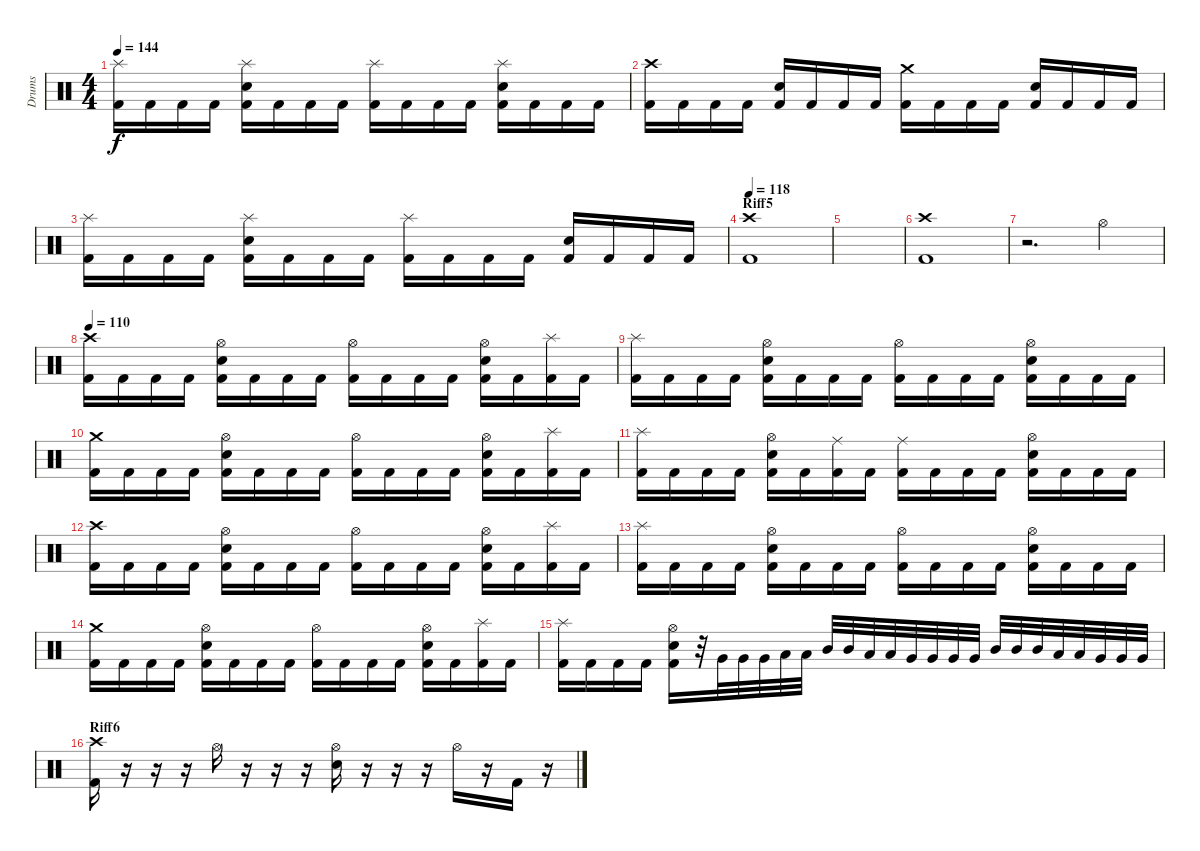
\track ("Drums" "Drums") {instrument percussion}
\staff {score}
\articulation defaults
\ts (4 4)
\tempo 144
\clef neutral
\ks c
("Splash (hit)" "Kick (hit) 2").16{dy f} "Kick (hit) 2".16 "Kick (hit) 2".16 "Kick (hit) 2".16 ("Splash (hit)" "Snare (hit) 2" "Kick (hit) 2").16 "Kick (hit) 2".16 "Kick (hit) 2".16 "Kick (hit) 2".16 ("Splash (hit)" "Kick (hit) 2").16 "Kick (hit) 2".16 "Kick (hit) 2".16 "Kick (hit) 2".16 ("Splash (hit)" "Snare (hit) 2" "Kick (hit) 2").16 "Kick (hit) 2".16 "Kick (hit) 2".16 "Kick (hit) 2".16 |
("Crash high (hit)" "Kick (hit) 2").16 "Kick (hit) 2".16 "Kick (hit) 2".16 "Kick (hit) 2".16 ("Snare (hit) 2" "Kick (hit) 2").16 "Kick (hit) 2".16 "Kick (hit) 2".16 "Kick (hit) 2".16 ("Crash medium (hit)" "Kick (hit) 2").16 "Kick (hit) 2".16 "Kick (hit) 2".16 "Kick (hit) 2".16 ("Snare (hit) 2" "Kick (hit) 2").16 "Kick (hit) 2".16 "Kick (hit) 2".16 "Kick (hit) 2".16 |
("Splash (hit)" "Kick (hit) 2").16 "Kick (hit) 2".16 "Kick (hit) 2".16 "Kick (hit) 2".16 ("Splash (hit)" "Snare (hit) 2" "Kick (hit) 2").16 "Kick (hit) 2".16 "Kick (hit) 2".16 "Kick (hit) 2".16 ("Splash (hit)" "Kick (hit) 2").16 "Kick (hit) 2".16 "Kick (hit) 2".16 "Kick (hit) 2".16 ("Snare (hit) 2" "Kick (hit) 2").16 "Kick (hit) 2".16 "Kick (hit) 2".16 "Kick (hit) 2".16 |
\section ("" "Riff5")
\tempo 118
("Crash high (hit)" "Kick (hit) 2").1 |
|
("Crash high (hit)" "Kick (hit) 2").1 |
r.2{d} "Hi-Hat (open)".4 |
\tempo 110
("Crash high (hit)" "Kick (hit) 2").16 "Kick (hit) 2".16 "Kick (hit) 2".16 "Kick (hit) 2".16 ("Hi-Hat (open)" "Snare (hit) 2" "Kick (hit) 2").16 "Kick (hit) 2".16 "Kick (hit) 2".16 "Kick (hit) 2".16 ("Hi-Hat (open)" "Kick (hit) 2").16 "Kick (hit) 2".16 "Kick (hit) 2".16 "Kick (hit) 2".16 ("Hi-Hat (open)" "Snare (hit) 2" "Kick (hit) 2").16 "Kick (hit) 2".16 ("Splash (hit)" "Kick (hit) 2").16 "Kick (hit) 2".16 |
("Splash (hit)" "Kick (hit) 2").16 "Kick (hit) 2".16 "Kick (hit) 2".16 "Kick (hit) 2".16 ("Hi-Hat (open)" "Snare (hit) 2" "Kick (hit) 2").16 "Kick (hit) 2".16 "Kick (hit) 2".16 "Kick (hit) 2".16 ("Hi-Hat (open)" "Kick (hit) 2").16 "Kick (hit) 2".16 "Kick (hit) 2".16 "Kick (hit) 2".16 ("Hi-Hat (open)" "Snare (hit) 2" "Kick (hit) 2").16 "Kick (hit) 2".16 "Kick (hit) 2".16 "Kick (hit) 2".16 |
("Crash medium (hit)" "Kick (hit) 2").16 "Kick (hit) 2".16 "Kick (hit) 2".16 "Kick (hit) 2".16 ("Hi-Hat (open)" "Snare (hit) 2" "Kick (hit) 2").16 "Kick (hit) 2".16 "Kick (hit) 2".16 "Kick (hit) 2".16 ("Hi-Hat (open)" "Kick (hit) 2").16 "Kick (hit) 2".16 "Kick (hit) 2".16 "Kick (hit) 2".16 ("Hi-Hat (open)" "Snare (hit) 2" "Kick (hit) 2").16 "Kick (hit) 2".16 ("Splash (hit)" "Kick (hit) 2").16 "Kick (hit) 2".16 |
("Splash (hit)" "Kick (hit) 2").16 "Kick (hit) 2".16 "Kick (hit) 2".16 "Kick (hit) 2".16 ("Hi-Hat (open)" "Snare (hit) 2" "Kick (hit) 2").16 "Kick (hit) 2".16 ("Ride (middle)" "Kick (hit) 2").16 "Kick (hit) 2".16 ("Ride (middle)" "Kick (hit) 2").16 "Kick (hit) 2".16 "Kick (hit) 2".16 "Kick (hit) 2".16 ("Hi-Hat (open)" "Snare (hit) 2" "Kick (hit) 2").16 "Kick (hit) 2".16 "Kick (hit) 2".16 "Kick (hit) 2".16 |
("Crash high (hit)" "Kick (hit) 2").16 "Kick (hit) 2".16 "Kick (hit) 2".16 "Kick (hit) 2".16 ("Hi-Hat (open)" "Snare (hit) 2" "Kick (hit) 2").16 "Kick (hit) 2".16 "Kick (hit) 2".16 "Kick (hit) 2".16 ("Hi-Hat (open)" "Kick (hit) 2").16 "Kick (hit) 2".16 "Kick (hit) 2".16 "Kick (hit) 2".16 ("Hi-Hat (open)" "Snare (hit) 2" "Kick (hit) 2").16 "Kick (hit) 2".16 ("Splash (hit)" "Kick (hit) 2").16 "Kick (hit) 2".16 |
("Splash (hit)" "Kick (hit) 2").16 "Kick (hit) 2".16 "Kick (hit) 2".16 "Kick (hit) 2".16 ("Hi-Hat (open)" "Snare (hit) 2" "Kick (hit) 2").16 "Kick (hit) 2".16 "Kick (hit) 2".16 "Kick (hit) 2".16 ("Hi-Hat (open)" "Kick (hit) 2").16 "Kick (hit) 2".16 "Kick (hit) 2".16 "Kick (hit) 2".16 ("Hi-Hat (open)" "Snare (hit) 2" "Kick (hit) 2").16 "Kick (hit) 2".16 "Kick (hit) 2".16 "Kick (hit) 2".16 |
("Crash medium (hit)" "Kick (hit) 2").16 "Kick (hit) 2".16 "Kick (hit) 2".16 "Kick (hit) 2".16 ("Hi-Hat (open)" "Snare (hit) 2" "Kick (hit) 2").16 "Kick (hit) 2".16 "Kick (hit) 2".16 "Kick (hit) 2".16 ("Hi-Hat (open)" "Kick (hit) 2").16 "Kick (hit) 2".16 "Kick (hit) 2".16 "Kick (hit) 2".16 ("Hi-Hat (open)" "Snare (hit) 2" "Kick (hit) 2").16 "Kick (hit) 2".16 ("Splash (hit)" "Kick (hit) 2").16 "Kick (hit) 2".16 |
("Splash (hit)" "Kick (hit) 2").16 "Kick (hit) 2".16 "Kick (hit) 2".16 "Kick (hit) 2".16 ("Hi-Hat (open)" "Snare (hit) 2" "Kick (hit) 2").16 r.32 "Very Low Tom (hit)".32 "Very Low Tom (hit)".32 "Very Low Tom (hit)".32 "Low Tom (hit)".32 "Low Tom (hit)".32 "Mid Tom (hit)".32 "Mid Tom (hit)".32 "Low Tom (hit)".32 "Low Tom (hit)".32 "Very Low Tom (hit)".32 "Very Low Tom (hit)".32 "Very Low Tom (hit)".32 "Very Low Tom (hit)".32 "Mid Tom (hit)".32 "Mid Tom (hit)".32 "Mid Tom (hit)".32 "Low Tom (hit)".32 "Low Tom (hit)".32 "Very Low Tom (hit)".32 "Very Low Tom (hit)".32 "Very Low Tom (hit)".32 |
\section ("" "Riff6")
("Crash high (hit)" "Kick (hit) 2").16 r.16 r.16 r.16 "Hi-Hat (open)".16 r.16 r.16 r.16 ("Hi-Hat (open)" "Snare (hit) 2").16 r.16 r.16 r.16 "Hi-Hat (open)".16 r.16 "Kick (hit) 2".16 r.16
